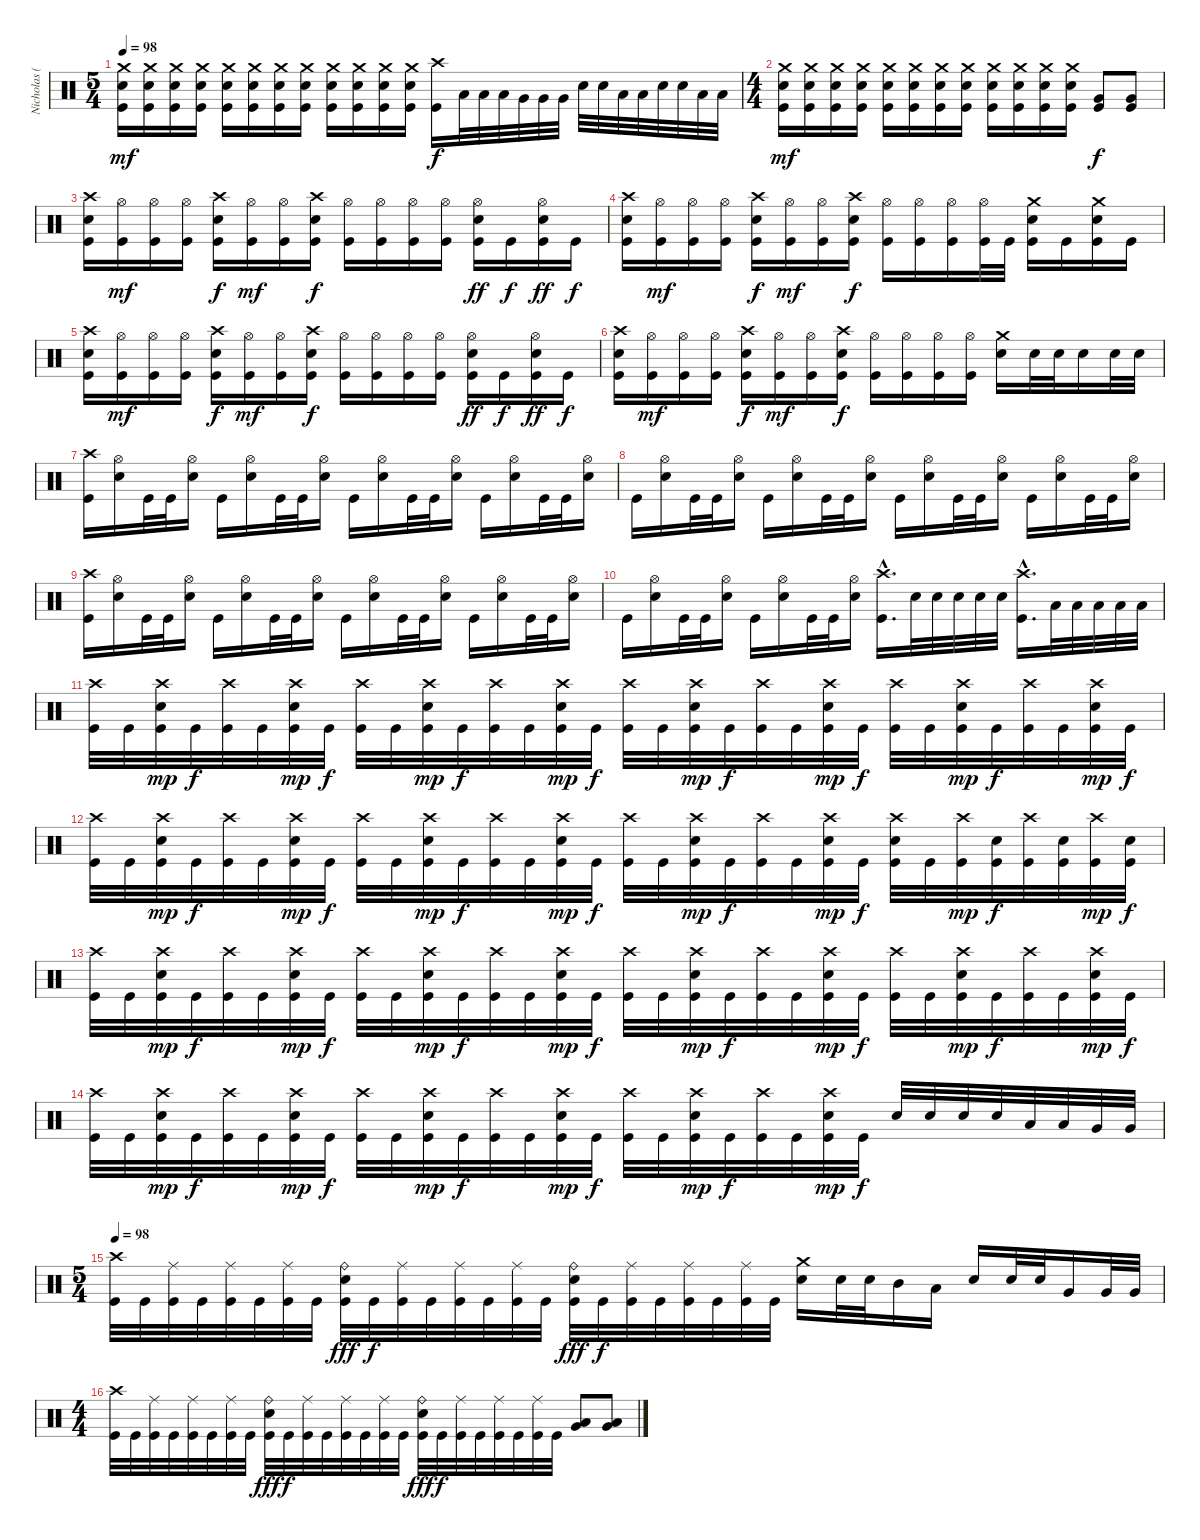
\track ("Nicholas (Drums)" "Nicholas (") {instrument percussion}
\staff {score}
\articulation defaults
\ts (5 4)
\tempo 98
\clef neutral
\ks c
("Crash medium (hit)" "Electric Snare (hit)" "Kick (hit)").16{dy mf} ("Crash medium (hit)" "Electric Snare (hit)" "Kick (hit)").16 ("Crash medium (hit)" "Electric Snare (hit)" "Kick (hit)").16 ("Crash medium (hit)" "Electric Snare (hit)" "Kick (hit)").16 ("Crash medium (hit)" "Electric Snare (hit)" "Kick (hit)").16 ("Crash medium (hit)" "Electric Snare (hit)" "Kick (hit)").16 ("Crash medium (hit)" "Electric Snare (hit)" "Kick (hit)").16 ("Crash medium (hit)" "Electric Snare (hit)" "Kick (hit)").16 ("Crash medium (hit)" "Electric Snare (hit)" "Kick (hit)").16 ("Crash medium (hit)" "Electric Snare (hit)" "Kick (hit)").16 ("Crash medium (hit)" "Electric Snare (hit)" "Kick (hit)").16 ("Crash medium (hit)" "Electric Snare (hit)" "Kick (hit)").16 ("Crash high (hit)" "Kick (hit)").16{dy f} "Low Floor Tom (hit)".32 "Low Floor Tom (hit)".32 "Low Floor Tom (hit)".32 "Very Low Tom (hit)".32 "Very Low Tom (hit)".32 "Very Low Tom (hit)".32 "Electric Snare (hit)".32 "Electric Snare (hit)".32 "Low Tom (hit)".32 "Low Tom (hit)".32 "Electric Snare (hit)".32 "Electric Snare (hit)".32 "Low Tom (hit)".32 "Low Tom (hit)".32 |
\ts (4 4)
("Crash medium (hit)" "Electric Snare (hit)" "Kick (hit)").16{dy mf} ("Crash medium (hit)" "Electric Snare (hit)" "Kick (hit)").16 ("Crash medium (hit)" "Electric Snare (hit)" "Kick (hit)").16 ("Crash medium (hit)" "Electric Snare (hit)" "Kick (hit)").16 ("Crash medium (hit)" "Electric Snare (hit)" "Kick (hit)").16 ("Crash medium (hit)" "Electric Snare (hit)" "Kick (hit)").16 ("Crash medium (hit)" "Electric Snare (hit)" "Kick (hit)").16 ("Crash medium (hit)" "Electric Snare (hit)" "Kick (hit)").16 ("Crash medium (hit)" "Electric Snare (hit)" "Kick (hit)").16 ("Crash medium (hit)" "Electric Snare (hit)" "Kick (hit)").16 ("Crash medium (hit)" "Electric Snare (hit)" "Kick (hit)").16 ("Crash medium (hit)" "Electric Snare (hit)" "Kick (hit)").16 ("Very Low Tom (hit)" "Kick (hit)").8{dy f} ("Very Low Tom (hit)" "Kick (hit)").8 |
("Crash high (hit)" "Electric Snare (hit)" "Kick (hit)").16 ("Hi-Hat (open)" "Kick (hit)").16{dy mf} ("Hi-Hat (open)" "Kick (hit)").16 ("Hi-Hat (open)" "Kick (hit)").16 ("Crash high (hit)" "Electric Snare (hit)" "Kick (hit)").16{dy f} ("Hi-Hat (open)" "Kick (hit)").16{dy mf} ("Hi-Hat (open)" "Kick (hit)").16 ("Crash high (hit)" "Electric Snare (hit)" "Kick (hit)").16{dy f} ("Hi-Hat (open)" "Kick (hit)").16 ("Hi-Hat (open)" "Kick (hit)").16 ("Hi-Hat (open)" "Kick (hit)").16 ("Hi-Hat (open)" "Kick (hit)").16 ("Hi-Hat (open)" "Electric Snare (hit)" "Kick (hit)").16{dy ff} "Kick (hit)".16{dy f} ("Hi-Hat (open)" "Electric Snare (hit)" "Kick (hit)").16{dy ff} "Kick (hit)".16{dy f} |
("Crash high (hit)" "Electric Snare (hit)" "Kick (hit)").16 ("Hi-Hat (open)" "Kick (hit)").16{dy mf} ("Hi-Hat (open)" "Kick (hit)").16 ("Hi-Hat (open)" "Kick (hit)").16 ("Crash high (hit)" "Electric Snare (hit)" "Kick (hit)").16{dy f} ("Hi-Hat (open)" "Kick (hit)").16{dy mf} ("Hi-Hat (open)" "Kick (hit)").16 ("Crash high (hit)" "Electric Snare (hit)" "Kick (hit)").16{dy f} ("Hi-Hat (open)" "Kick (hit)").16 ("Hi-Hat (open)" "Kick (hit)").16 ("Hi-Hat (open)" "Kick (hit)").16 ("Hi-Hat (open)" "Kick (hit)").32 "Kick (hit)".32 ("Crash medium (hit)" "Electric Snare (hit)" "Kick (hit)").16 "Kick (hit)".16 ("Crash medium (hit)" "Electric Snare (hit)" "Kick (hit)").16 "Kick (hit)".16 |
("Crash high (hit)" "Electric Snare (hit)" "Kick (hit)").16 ("Hi-Hat (open)" "Kick (hit)").16{dy mf} ("Hi-Hat (open)" "Kick (hit)").16 ("Hi-Hat (open)" "Kick (hit)").16 ("Crash high (hit)" "Electric Snare (hit)" "Kick (hit)").16{dy f} ("Hi-Hat (open)" "Kick (hit)").16{dy mf} ("Hi-Hat (open)" "Kick (hit)").16 ("Crash high (hit)" "Electric Snare (hit)" "Kick (hit)").16{dy f} ("Hi-Hat (open)" "Kick (hit)").16 ("Hi-Hat (open)" "Kick (hit)").16 ("Hi-Hat (open)" "Kick (hit)").16 ("Hi-Hat (open)" "Kick (hit)").16 ("Hi-Hat (open)" "Electric Snare (hit)" "Kick (hit)").16{dy ff} "Kick (hit)".16{dy f} ("Hi-Hat (open)" "Electric Snare (hit)" "Kick (hit)").16{dy ff} "Kick (hit)".16{dy f} |
("Crash high (hit)" "Electric Snare (hit)" "Kick (hit)").16 ("Hi-Hat (open)" "Kick (hit)").16{dy mf} ("Hi-Hat (open)" "Kick (hit)").16 ("Hi-Hat (open)" "Kick (hit)").16 ("Crash high (hit)" "Electric Snare (hit)" "Kick (hit)").16{dy f} ("Hi-Hat (open)" "Kick (hit)").16{dy mf} ("Hi-Hat (open)" "Kick (hit)").16 ("Crash high (hit)" "Electric Snare (hit)" "Kick (hit)").16{dy f} ("Hi-Hat (open)" "Kick (hit)").16 ("Hi-Hat (open)" "Kick (hit)").16 ("Hi-Hat (open)" "Kick (hit)").16 ("Hi-Hat (open)" "Kick (hit)").16 ("Crash medium (hit)" "Electric Snare (hit)").16 "Electric Snare (hit)".32 "Electric Snare (hit)".32 "Electric Snare (hit)".16 "Electric Snare (hit)".32 "Electric Snare (hit)".32 |
("Crash high (hit)" "Kick (hit)").16 ("Hi-Hat (open)" "Electric Snare (hit)").16 "Kick (hit)".32 "Kick (hit)".32 ("Hi-Hat (open)" "Electric Snare (hit)").16 "Kick (hit)".16 ("Hi-Hat (open)" "Electric Snare (hit)").16 "Kick (hit)".32 "Kick (hit)".32 ("Hi-Hat (open)" "Electric Snare (hit)").16 "Kick (hit)".16 ("Hi-Hat (open)" "Electric Snare (hit)").16 "Kick (hit)".32 "Kick (hit)".32 ("Hi-Hat (open)" "Electric Snare (hit)").16 "Kick (hit)".16 ("Hi-Hat (open)" "Electric Snare (hit)").16 "Kick (hit)".32 "Kick (hit)".32 ("Hi-Hat (open)" "Electric Snare (hit)").16 |
"Kick (hit)".16 ("Hi-Hat (open)" "Electric Snare (hit)").16 "Kick (hit)".32 "Kick (hit)".32 ("Hi-Hat (open)" "Electric Snare (hit)").16 "Kick (hit)".16 ("Hi-Hat (open)" "Electric Snare (hit)").16 "Kick (hit)".32 "Kick (hit)".32 ("Hi-Hat (open)" "Electric Snare (hit)").16 "Kick (hit)".16 ("Hi-Hat (open)" "Electric Snare (hit)").16 "Kick (hit)".32 "Kick (hit)".32 ("Hi-Hat (open)" "Electric Snare (hit)").16 "Kick (hit)".16 ("Hi-Hat (open)" "Electric Snare (hit)").16 "Kick (hit)".32 "Kick (hit)".32 ("Hi-Hat (open)" "Electric Snare (hit)").16 |
("Crash high (hit)" "Kick (hit)").16 ("Hi-Hat (open)" "Electric Snare (hit)").16 "Kick (hit)".32 "Kick (hit)".32 ("Hi-Hat (open)" "Electric Snare (hit)").16 "Kick (hit)".16 ("Hi-Hat (open)" "Electric Snare (hit)").16 "Kick (hit)".32 "Kick (hit)".32 ("Hi-Hat (open)" "Electric Snare (hit)").16 "Kick (hit)".16 ("Hi-Hat (open)" "Electric Snare (hit)").16 "Kick (hit)".32 "Kick (hit)".32 ("Hi-Hat (open)" "Electric Snare (hit)").16 "Kick (hit)".16 ("Hi-Hat (open)" "Electric Snare (hit)").16 "Kick (hit)".32 "Kick (hit)".32 ("Hi-Hat (open)" "Electric Snare (hit)").16 |
"Kick (hit)".16 ("Hi-Hat (open)" "Electric Snare (hit)").16 "Kick (hit)".32 "Kick (hit)".32 ("Hi-Hat (open)" "Electric Snare (hit)").16 "Kick (hit)".16 ("Hi-Hat (open)" "Electric Snare (hit)").16 "Kick (hit)".32 "Kick (hit)".32 ("Hi-Hat (open)" "Electric Snare (hit)").16 ("Crash high (hit)"{hac} "Kick (hit)"{hac}).16{d} "Electric Snare (hit)".32 "Electric Snare (hit)".32 "Electric Snare (hit)".32 "Electric Snare (hit)".32 "Electric Snare (hit)".32 ("Crash high (hit)"{hac} "Kick (hit)"{hac}).16{d} "Low Tom (hit)".32 "Low Tom (hit)".32 "Low Tom (hit)".32 "Low Tom (hit)".32 "Low Tom (hit)".32 |
("Crash high (hit)" "Kick (hit)").32 "Kick (hit)".32 ("Crash high (hit)" "Electric Snare (hit)" "Kick (hit)").32{dy mp} "Kick (hit)".32{dy f} ("Crash high (hit)" "Kick (hit)").32 "Kick (hit)".32 ("Crash high (hit)" "Electric Snare (hit)" "Kick (hit)").32{dy mp} "Kick (hit)".32{dy f} ("Crash high (hit)" "Kick (hit)").32 "Kick (hit)".32 ("Crash high (hit)" "Electric Snare (hit)" "Kick (hit)").32{dy mp} "Kick (hit)".32{dy f} ("Crash high (hit)" "Kick (hit)").32 "Kick (hit)".32 ("Crash high (hit)" "Electric Snare (hit)" "Kick (hit)").32{dy mp} "Kick (hit)".32{dy f} ("Crash high (hit)" "Kick (hit)").32 "Kick (hit)".32 ("Crash high (hit)" "Electric Snare (hit)" "Kick (hit)").32{dy mp} "Kick (hit)".32{dy f} ("Crash high (hit)" "Kick (hit)").32 "Kick (hit)".32 ("Crash high (hit)" "Electric Snare (hit)" "Kick (hit)").32{dy mp} "Kick (hit)".32{dy f} ("Crash high (hit)" "Kick (hit)").32 "Kick (hit)".32 ("Crash high (hit)" "Electric Snare (hit)" "Kick (hit)").32{dy mp} "Kick (hit)".32{dy f} ("Crash high (hit)" "Kick (hit)").32 "Kick (hit)".32 ("Crash high (hit)" "Electric Snare (hit)" "Kick (hit)").32{dy mp} "Kick (hit)".32{dy f} |
("Crash high (hit)" "Kick (hit)").32 "Kick (hit)".32 ("Crash high (hit)" "Electric Snare (hit)" "Kick (hit)").32{dy mp} "Kick (hit)".32{dy f} ("Crash high (hit)" "Kick (hit)").32 "Kick (hit)".32 ("Crash high (hit)" "Electric Snare (hit)" "Kick (hit)").32{dy mp} "Kick (hit)".32{dy f} ("Crash high (hit)" "Kick (hit)").32 "Kick (hit)".32 ("Crash high (hit)" "Electric Snare (hit)" "Kick (hit)").32{dy mp} "Kick (hit)".32{dy f} ("Crash high (hit)" "Kick (hit)").32 "Kick (hit)".32 ("Crash high (hit)" "Electric Snare (hit)" "Kick (hit)").32{dy mp} "Kick (hit)".32{dy f} ("Crash high (hit)" "Kick (hit)").32 "Kick (hit)".32 ("Crash high (hit)" "Electric Snare (hit)" "Kick (hit)").32{dy mp} "Kick (hit)".32{dy f} ("Crash high (hit)" "Kick (hit)").32 "Kick (hit)".32 ("Crash high (hit)" "Electric Snare (hit)" "Kick (hit)").32{dy mp} "Kick (hit)".32{dy f} ("Crash high (hit)" "Electric Snare (hit)" "Kick (hit)").32 "Kick (hit)".32 ("Crash high (hit)" "Kick (hit)").32{dy mp} ("Electric Snare (hit)" "Kick (hit)").32{dy f} ("Crash high (hit)" "Kick (hit)").32 ("Electric Snare (hit)" "Kick (hit)").32 ("Crash high (hit)" "Kick (hit)").32{dy mp} ("Electric Snare (hit)" "Kick (hit)").32{dy f} |
("Crash high (hit)" "Kick (hit)").32 "Kick (hit)".32 ("Crash high (hit)" "Electric Snare (hit)" "Kick (hit)").32{dy mp} "Kick (hit)".32{dy f} ("Crash high (hit)" "Kick (hit)").32 "Kick (hit)".32 ("Crash high (hit)" "Electric Snare (hit)" "Kick (hit)").32{dy mp} "Kick (hit)".32{dy f} ("Crash high (hit)" "Kick (hit)").32 "Kick (hit)".32 ("Crash high (hit)" "Electric Snare (hit)" "Kick (hit)").32{dy mp} "Kick (hit)".32{dy f} ("Crash high (hit)" "Kick (hit)").32 "Kick (hit)".32 ("Crash high (hit)" "Electric Snare (hit)" "Kick (hit)").32{dy mp} "Kick (hit)".32{dy f} ("Crash high (hit)" "Kick (hit)").32 "Kick (hit)".32 ("Crash high (hit)" "Electric Snare (hit)" "Kick (hit)").32{dy mp} "Kick (hit)".32{dy f} ("Crash high (hit)" "Kick (hit)").32 "Kick (hit)".32 ("Crash high (hit)" "Electric Snare (hit)" "Kick (hit)").32{dy mp} "Kick (hit)".32{dy f} ("Crash high (hit)" "Kick (hit)").32 "Kick (hit)".32 ("Crash high (hit)" "Electric Snare (hit)" "Kick (hit)").32{dy mp} "Kick (hit)".32{dy f} ("Crash high (hit)" "Kick (hit)").32 "Kick (hit)".32 ("Crash high (hit)" "Electric Snare (hit)" "Kick (hit)").32{dy mp} "Kick (hit)".32{dy f} |
("Crash high (hit)" "Kick (hit)").32 "Kick (hit)".32 ("Crash high (hit)" "Electric Snare (hit)" "Kick (hit)").32{dy mp} "Kick (hit)".32{dy f} ("Crash high (hit)" "Kick (hit)").32 "Kick (hit)".32 ("Crash high (hit)" "Electric Snare (hit)" "Kick (hit)").32{dy mp} "Kick (hit)".32{dy f} ("Crash high (hit)" "Kick (hit)").32 "Kick (hit)".32 ("Crash high (hit)" "Electric Snare (hit)" "Kick (hit)").32{dy mp} "Kick (hit)".32{dy f} ("Crash high (hit)" "Kick (hit)").32 "Kick (hit)".32 ("Crash high (hit)" "Electric Snare (hit)" "Kick (hit)").32{dy mp} "Kick (hit)".32{dy f} ("Crash high (hit)" "Kick (hit)").32 "Kick (hit)".32 ("Crash high (hit)" "Electric Snare (hit)" "Kick (hit)").32{dy mp} "Kick (hit)".32{dy f} ("Crash high (hit)" "Kick (hit)").32 "Kick (hit)".32 ("Crash high (hit)" "Electric Snare (hit)" "Kick (hit)").32{dy mp} "Kick (hit)".32{dy f} "Electric Snare (hit)".32 "Electric Snare (hit)".32 "Electric Snare (hit)".32 "Electric Snare (hit)".32 "Low Tom (hit)".32 "Low Tom (hit)".32 "Very Low Tom (hit)".32 "Very Low Tom (hit)".32 |
\ts (5 4)
\tempo 98
("Crash high (hit)" "Kick (hit)").32 "Kick (hit)".32 ("Ride (middle)" "Kick (hit)").32 "Kick (hit)".32 ("Ride (middle)" "Kick (hit)").32 "Kick (hit)".32 ("Ride (middle)" "Kick (hit)").32 "Kick (hit)".32 ("Ride (bell)" "Electric Snare (hit)" "Kick (hit)").32{dy fff} "Kick (hit)".32{dy f} ("Ride (middle)" "Kick (hit)").32 "Kick (hit)".32 ("Ride (middle)" "Kick (hit)").32 "Kick (hit)".32 ("Ride (middle)" "Kick (hit)").32 "Kick (hit)".32 ("Ride (bell)" "Electric Snare (hit)" "Kick (hit)").32{dy fff} "Kick (hit)".32{dy f} ("Ride (middle)" "Kick (hit)").32 "Kick (hit)".32 ("Ride (middle)" "Kick (hit)").32 "Kick (hit)".32 ("Ride (middle)" "Kick (hit)").32 "Kick (hit)".32 ("Crash medium (hit)" "Electric Snare (hit)").16 "Electric Snare (hit)".32 "Electric Snare (hit)".32 "Mid Tom (hit)".16 "Low Tom (hit)".16 "Electric Snare (hit)".16 "Electric Snare (hit)".32 "Electric Snare (hit)".32 "Very Low Tom (hit)".16 "Very Low Tom (hit)".32 "Very Low Tom (hit)".32 |
\ts (4 4)
("Crash high (hit)" "Kick (hit)").32 "Kick (hit)".32 ("Ride (middle)" "Kick (hit)").32 "Kick (hit)".32 ("Ride (middle)" "Kick (hit)").32 "Kick (hit)".32 ("Ride (middle)" "Kick (hit)").32 "Kick (hit)".32 ("Ride (bell)" "Electric Snare (hit)" "Kick (hit)").32{dy fff} "Kick (hit)".32{dy f} ("Ride (middle)" "Kick (hit)").32 "Kick (hit)".32 ("Ride (middle)" "Kick (hit)").32 "Kick (hit)".32 ("Ride (middle)" "Kick (hit)").32 "Kick (hit)".32 ("Ride (bell)" "Electric Snare (hit)" "Kick (hit)").32{dy fff} "Kick (hit)".32{dy f} ("Ride (middle)" "Kick (hit)").32 "Kick (hit)".32 ("Ride (middle)" "Kick (hit)").32 "Kick (hit)".32 ("Ride (middle)" "Kick (hit)").32 "Kick (hit)".32 ("Low Tom (hit)" "Very Low Tom (hit)").8{bu 60} ("Low Tom (hit)" "Very Low Tom (hit)").8{bu 60}
